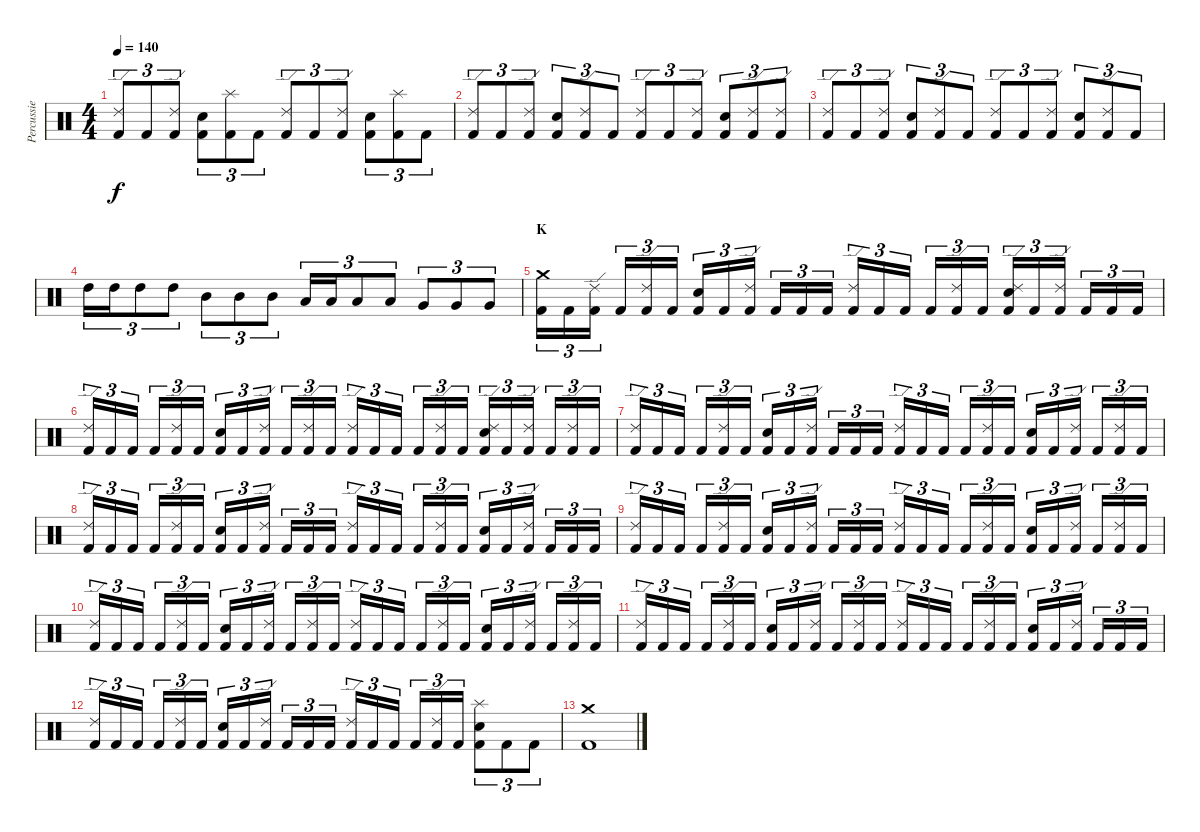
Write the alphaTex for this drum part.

\track ("Percussie" "Percussie") {instrument percussion}
\staff {score}
\articulation defaults
\ts (4 4)
\tempo 140
\clef neutral
\ks c
("Ride (edge) 2" "Kick (hit) 2").8{tu (3 2) dy f} "Kick (hit) 2".8{tu (3 2)} ("Ride (edge) 2" "Kick (hit) 2").8{tu (3 2)} ("Electric Snare (hit)" "Kick (hit) 2").8{tu (3 2)} ("Splash (hit)" "Kick (hit) 2").8{tu (3 2)} "Kick (hit) 2".8{tu (3 2)} ("Ride (edge) 2" "Kick (hit) 2").8{tu (3 2)} "Kick (hit) 2".8{tu (3 2)} ("Ride (edge) 2" "Kick (hit) 2").8{tu (3 2)} ("Electric Snare (hit)" "Kick (hit) 2").8{tu (3 2)} ("Splash (hit)" "Kick (hit) 2").8{tu (3 2)} "Kick (hit) 2".8{tu (3 2)} |
("Ride (edge) 2" "Kick (hit) 2").8{tu (3 2)} "Kick (hit) 2".8{tu (3 2)} ("Ride (edge) 2" "Kick (hit) 2").8{tu (3 2)} ("Electric Snare (hit)" "Kick (hit) 2").8{tu (3 2)} ("Ride (edge) 2" "Kick (hit) 2").8{tu (3 2)} "Kick (hit) 2".8{tu (3 2)} ("Ride (edge) 2" "Kick (hit) 2").8{tu (3 2)} "Kick (hit) 2".8{tu (3 2)} ("Ride (edge) 2" "Kick (hit) 2").8{tu (3 2)} ("Electric Snare (hit)" "Kick (hit) 2").8{tu (3 2)} ("Ride (edge) 2" "Kick (hit) 2").8{tu (3 2)} ("Ride (edge) 2" "Kick (hit) 2").8{tu (3 2)} |
("Ride (edge) 2" "Kick (hit) 2").8{tu (3 2)} "Kick (hit) 2".8{tu (3 2)} ("Ride (edge) 2" "Kick (hit) 2").8{tu (3 2)} ("Electric Snare (hit)" "Kick (hit) 2").8{tu (3 2)} ("Ride (edge) 2" "Kick (hit) 2").8{tu (3 2)} "Kick (hit) 2".8{tu (3 2)} ("Ride (edge) 2" "Kick (hit) 2").8{tu (3 2)} "Kick (hit) 2".8{tu (3 2)} ("Ride (edge) 2" "Kick (hit) 2").8{tu (3 2)} ("Electric Snare (hit)" "Kick (hit) 2").8{tu (3 2)} ("Ride (edge) 2" "Kick (hit) 2").8{tu (3 2)} "Kick (hit) 2".8{tu (3 2)} |
"High Tom (hit)".16{tu (3 2)} "High Tom (hit)".16{tu (3 2)} "High Tom (hit)".8{tu (3 2)} "High Tom (hit)".8{tu (3 2)} "Mid Tom (hit)".8{tu (3 2)} "Mid Tom (hit)".8{tu (3 2)} "Mid Tom (hit)".8{tu (3 2)} "Low Tom (hit)".16{tu (3 2)} "Low Tom (hit)".16{tu (3 2)} "Low Tom (hit)".8{tu (3 2)} "Low Tom (hit)".8{tu (3 2)} "Very Low Tom (hit)".8{tu (3 2)} "Very Low Tom (hit)".8{tu (3 2)} "Very Low Tom (hit)".8{tu (3 2)} |
\section ("" "K")
("Crash medium (hit)" "Kick (hit) 2").16{tu (3 2)} "Kick (hit) 2".16{tu (3 2)} ("Ride (edge) 2" "Kick (hit) 2").16{tu (3 2)} "Kick (hit) 2".16{tu (3 2)} ("Ride (edge) 2" "Kick (hit) 2").16{tu (3 2)} "Kick (hit) 2".16{tu (3 2)} ("Electric Snare (hit)" "Kick (hit) 2").16{tu (3 2)} "Kick (hit) 2".16{tu (3 2)} ("Ride (edge) 2" "Kick (hit) 2").16{tu (3 2)} "Kick (hit) 2".16{tu (3 2)} "Kick (hit) 2".16{tu (3 2)} "Kick (hit) 2".16{tu (3 2)} ("Ride (edge) 2" "Kick (hit) 2").16{tu (3 2)} "Kick (hit) 2".16{tu (3 2)} "Kick (hit) 2".16{tu (3 2)} "Kick (hit) 2".16{tu (3 2)} ("Ride (edge) 2" "Kick (hit) 2").16{tu (3 2)} "Kick (hit) 2".16{tu (3 2)} ("Ride (edge) 2" "Electric Snare (hit)" "Kick (hit) 2").16{tu (3 2)} "Kick (hit) 2".16{tu (3 2)} ("Ride (edge) 2" "Kick (hit) 2").16{tu (3 2)} "Kick (hit) 2".16{tu (3 2)} "Kick (hit) 2".16{tu (3 2)} "Kick (hit) 2".16{tu (3 2)} |
("Ride (edge) 2" "Kick (hit) 2").16{tu (3 2)} "Kick (hit) 2".16{tu (3 2)} "Kick (hit) 2".16{tu (3 2)} "Kick (hit) 2".16{tu (3 2)} ("Ride (edge) 2" "Kick (hit) 2").16{tu (3 2)} "Kick (hit) 2".16{tu (3 2)} ("Electric Snare (hit)" "Kick (hit) 2").16{tu (3 2)} "Kick (hit) 2".16{tu (3 2)} ("Ride (edge) 2" "Kick (hit) 2").16{tu (3 2)} "Kick (hit) 2".16{tu (3 2)} ("Ride (edge) 2" "Kick (hit) 2").16{tu (3 2)} "Kick (hit) 2".16{tu (3 2)} ("Ride (edge) 2" "Kick (hit) 2").16{tu (3 2)} "Kick (hit) 2".16{tu (3 2)} "Kick (hit) 2".16{tu (3 2)} "Kick (hit) 2".16{tu (3 2)} ("Ride (edge) 2" "Kick (hit) 2").16{tu (3 2)} "Kick (hit) 2".16{tu (3 2)} ("Ride (edge) 2" "Electric Snare (hit)" "Kick (hit) 2").16{tu (3 2)} "Kick (hit) 2".16{tu (3 2)} ("Ride (edge) 2" "Kick (hit) 2").16{tu (3 2)} "Kick (hit) 2".16{tu (3 2)} ("Ride (edge) 2" "Kick (hit) 2").16{tu (3 2)} "Kick (hit) 2".16{tu (3 2)} |
("Ride (edge) 2" "Kick (hit) 2").16{tu (3 2)} "Kick (hit) 2".16{tu (3 2)} "Kick (hit) 2".16{tu (3 2)} "Kick (hit) 2".16{tu (3 2)} ("Ride (edge) 2" "Kick (hit) 2").16{tu (3 2)} "Kick (hit) 2".16{tu (3 2)} ("Electric Snare (hit)" "Kick (hit) 2").16{tu (3 2)} "Kick (hit) 2".16{tu (3 2)} ("Ride (edge) 2" "Kick (hit) 2").16{tu (3 2)} "Kick (hit) 2".16{tu (3 2)} "Kick (hit) 2".16{tu (3 2)} "Kick (hit) 2".16{tu (3 2)} ("Ride (edge) 2" "Kick (hit) 2").16{tu (3 2)} "Kick (hit) 2".16{tu (3 2)} "Kick (hit) 2".16{tu (3 2)} "Kick (hit) 2".16{tu (3 2)} ("Ride (edge) 2" "Kick (hit) 2").16{tu (3 2)} "Kick (hit) 2".16{tu (3 2)} ("Electric Snare (hit)" "Kick (hit) 2").16{tu (3 2)} "Kick (hit) 2".16{tu (3 2)} ("Ride (edge) 2" "Kick (hit) 2").16{tu (3 2)} "Kick (hit) 2".16{tu (3 2)} ("Ride (edge) 2" "Kick (hit) 2").16{tu (3 2)} "Kick (hit) 2".16{tu (3 2)} |
("Ride (edge) 2" "Kick (hit) 2").16{tu (3 2)} "Kick (hit) 2".16{tu (3 2)} "Kick (hit) 2".16{tu (3 2)} "Kick (hit) 2".16{tu (3 2)} ("Ride (edge) 2" "Kick (hit) 2").16{tu (3 2)} "Kick (hit) 2".16{tu (3 2)} ("Electric Snare (hit)" "Kick (hit) 2").16{tu (3 2)} "Kick (hit) 2".16{tu (3 2)} ("Ride (edge) 2" "Kick (hit) 2").16{tu (3 2)} "Kick (hit) 2".16{tu (3 2)} "Kick (hit) 2".16{tu (3 2)} "Kick (hit) 2".16{tu (3 2)} ("Ride (edge) 2" "Kick (hit) 2").16{tu (3 2)} "Kick (hit) 2".16{tu (3 2)} "Kick (hit) 2".16{tu (3 2)} "Kick (hit) 2".16{tu (3 2)} ("Ride (edge) 2" "Kick (hit) 2").16{tu (3 2)} "Kick (hit) 2".16{tu (3 2)} ("Electric Snare (hit)" "Kick (hit) 2").16{tu (3 2)} "Kick (hit) 2".16{tu (3 2)} ("Ride (edge) 2" "Kick (hit) 2").16{tu (3 2)} "Kick (hit) 2".16{tu (3 2)} "Kick (hit) 2".16{tu (3 2)} "Kick (hit) 2".16{tu (3 2)} |
("Ride (edge) 2" "Kick (hit) 2").16{tu (3 2)} "Kick (hit) 2".16{tu (3 2)} "Kick (hit) 2".16{tu (3 2)} "Kick (hit) 2".16{tu (3 2)} ("Ride (edge) 2" "Kick (hit) 2").16{tu (3 2)} "Kick (hit) 2".16{tu (3 2)} ("Electric Snare (hit)" "Kick (hit) 2").16{tu (3 2)} "Kick (hit) 2".16{tu (3 2)} ("Ride (edge) 2" "Kick (hit) 2").16{tu (3 2)} "Kick (hit) 2".16{tu (3 2)} "Kick (hit) 2".16{tu (3 2)} "Kick (hit) 2".16{tu (3 2)} ("Ride (edge) 2" "Kick (hit) 2").16{tu (3 2)} "Kick (hit) 2".16{tu (3 2)} "Kick (hit) 2".16{tu (3 2)} "Kick (hit) 2".16{tu (3 2)} ("Ride (edge) 2" "Kick (hit) 2").16{tu (3 2)} "Kick (hit) 2".16{tu (3 2)} ("Electric Snare (hit)" "Kick (hit) 2").16{tu (3 2)} "Kick (hit) 2".16{tu (3 2)} ("Ride (edge) 2" "Kick (hit) 2").16{tu (3 2)} "Kick (hit) 2".16{tu (3 2)} ("Ride (edge) 2" "Kick (hit) 2").16{tu (3 2)} "Kick (hit) 2".16{tu (3 2)} |
("Ride (edge) 2" "Kick (hit) 2").16{tu (3 2)} "Kick (hit) 2".16{tu (3 2)} "Kick (hit) 2".16{tu (3 2)} "Kick (hit) 2".16{tu (3 2)} ("Ride (edge) 2" "Kick (hit) 2").16{tu (3 2)} "Kick (hit) 2".16{tu (3 2)} ("Electric Snare (hit)" "Kick (hit) 2").16{tu (3 2)} "Kick (hit) 2".16{tu (3 2)} ("Ride (edge) 2" "Kick (hit) 2").16{tu (3 2)} "Kick (hit) 2".16{tu (3 2)} ("Ride (edge) 2" "Kick (hit) 2").16{tu (3 2)} "Kick (hit) 2".16{tu (3 2)} ("Ride (edge) 2" "Kick (hit) 2").16{tu (3 2)} "Kick (hit) 2".16{tu (3 2)} "Kick (hit) 2".16{tu (3 2)} "Kick (hit) 2".16{tu (3 2)} ("Ride (edge) 2" "Kick (hit) 2").16{tu (3 2)} "Kick (hit) 2".16{tu (3 2)} ("Electric Snare (hit)" "Kick (hit) 2").16{tu (3 2)} "Kick (hit) 2".16{tu (3 2)} ("Ride (edge) 2" "Kick (hit) 2").16{tu (3 2)} "Kick (hit) 2".16{tu (3 2)} ("Ride (edge) 2" "Kick (hit) 2").16{tu (3 2)} "Kick (hit) 2".16{tu (3 2)} |
("Ride (edge) 2" "Kick (hit) 2").16{tu (3 2)} "Kick (hit) 2".16{tu (3 2)} "Kick (hit) 2".16{tu (3 2)} "Kick (hit) 2".16{tu (3 2)} ("Ride (edge) 2" "Kick (hit) 2").16{tu (3 2)} "Kick (hit) 2".16{tu (3 2)} ("Electric Snare (hit)" "Kick (hit) 2").16{tu (3 2)} "Kick (hit) 2".16{tu (3 2)} ("Ride (edge) 2" "Kick (hit) 2").16{tu (3 2)} "Kick (hit) 2".16{tu (3 2)} ("Ride (edge) 2" "Kick (hit) 2").16{tu (3 2)} "Kick (hit) 2".16{tu (3 2)} ("Ride (edge) 2" "Kick (hit) 2").16{tu (3 2)} "Kick (hit) 2".16{tu (3 2)} "Kick (hit) 2".16{tu (3 2)} "Kick (hit) 2".16{tu (3 2)} ("Ride (edge) 2" "Kick (hit) 2").16{tu (3 2)} "Kick (hit) 2".16{tu (3 2)} ("Electric Snare (hit)" "Kick (hit) 2").16{tu (3 2)} "Kick (hit) 2".16{tu (3 2)} ("Ride (edge) 2" "Kick (hit) 2").16{tu (3 2)} "Kick (hit) 2".16{tu (3 2)} "Kick (hit) 2".16{tu (3 2)} "Kick (hit) 2".16{tu (3 2)} |
("Ride (edge) 2" "Kick (hit) 2").16{tu (3 2)} "Kick (hit) 2".16{tu (3 2)} "Kick (hit) 2".16{tu (3 2)} "Kick (hit) 2".16{tu (3 2)} ("Ride (edge) 2" "Kick (hit) 2").16{tu (3 2)} "Kick (hit) 2".16{tu (3 2)} ("Electric Snare (hit)" "Kick (hit) 2").16{tu (3 2)} "Kick (hit) 2".16{tu (3 2)} ("Ride (edge) 2" "Kick (hit) 2").16{tu (3 2)} "Kick (hit) 2".16{tu (3 2)} "Kick (hit) 2".16{tu (3 2)} "Kick (hit) 2".16{tu (3 2)} ("Ride (edge) 2" "Kick (hit) 2").16{tu (3 2)} "Kick (hit) 2".16{tu (3 2)} "Kick (hit) 2".16{tu (3 2)} "Kick (hit) 2".16{tu (3 2)} ("Ride (edge) 2" "Kick (hit) 2").16{tu (3 2)} "Kick (hit) 2".16{tu (3 2)} ("Splash (hit)" "Electric Snare (hit)" "Kick (hit) 2").8{tu (3 2)} "Kick (hit) 2".8{tu (3 2)} "Kick (hit) 2".8{tu (3 2)} |
("Crash medium (hit)" "Kick (hit) 2").1
